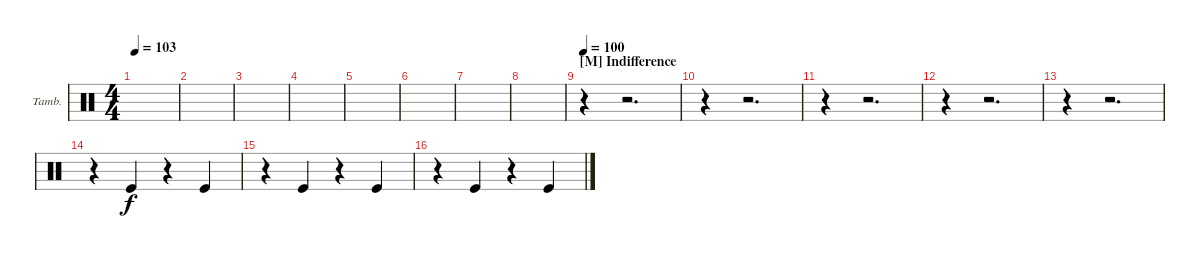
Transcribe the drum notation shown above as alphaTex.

\defaultSystemsLayout 4
\bracketExtendMode nobrackets
\firstSystemTrackNameOrientation horizontal
\otherSystemsTrackNameOrientation horizontal
\track ("Tambourine" "Tamb.") {instrument percussion}
\staff {score}
\articulation defaults
\ts (4 4)
\tempo 103
\clef neutral
\ks c
|
|
|
|
|
|
|
|
\section ("M" "Indifference")
\tempo 100
r.4 r.2{d} |
r.4 r.2{d} |
r.4 r.2{d} |
r.4 r.2{d} |
r.4 r.2{d} |
r.4 "Kick (hit)".4{dy f} r.4 "Kick (hit)".4 |
r.4 "Kick (hit)".4 r.4 "Kick (hit)".4 |
r.4 "Kick (hit)".4 r.4 "Kick (hit)".4
